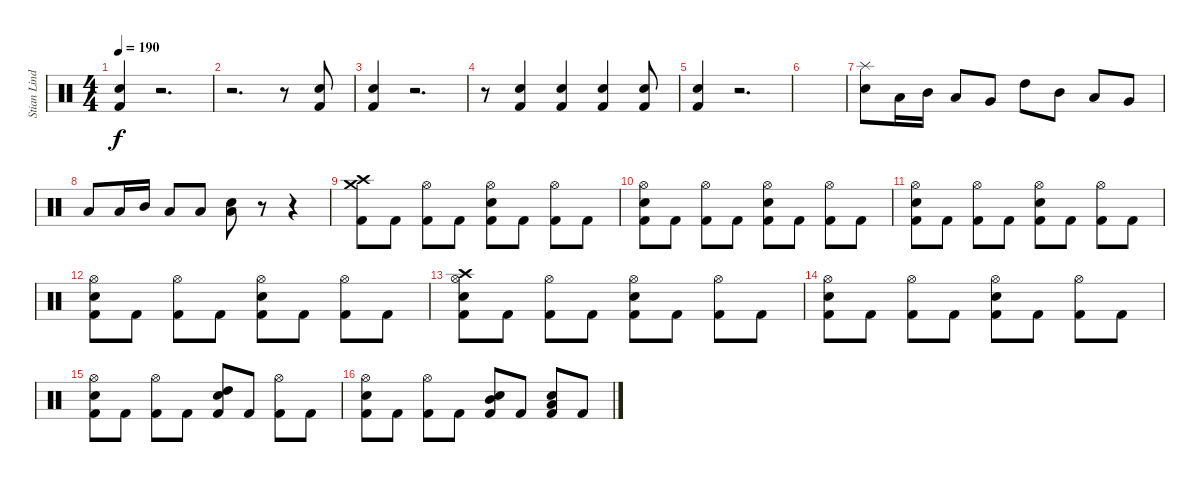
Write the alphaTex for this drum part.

\track ("Stian Lindaas" "Stian Lind") {instrument percussion}
\staff {score}
\articulation defaults
\ts (4 4)
\section ("" "")
\tempo 190
\clef neutral
\ks c
("Electric Snare (hit)" "Kick (hit) 2").4{dy f} r.2{d} |
r.2{d} r.8 ("Electric Snare (hit)" "Kick (hit) 2").8 |
("Electric Snare (hit)" "Kick (hit) 2").4 r.2{d} |
r.8 ("Electric Snare (hit)" "Kick (hit) 2").4 ("Electric Snare (hit)" "Kick (hit) 2").4 ("Electric Snare (hit)" "Kick (hit) 2").4 ("Electric Snare (hit)" "Kick (hit) 2").8 |
("Electric Snare (hit)" "Kick (hit) 2").4 r.2{d} |
|
("Splash (hit)" "Electric Snare (hit)").8 "Low Tom (hit)".16 "Mid Tom (hit)".16 "Low Tom (hit)".8 "Very Low Tom (hit)".8 "High Tom (hit)".8 "Mid Tom (hit)".8 "Low Tom (hit)".8 "Very Low Tom (hit)".8 |
"Low Tom (hit)".8 "Low Tom (hit)".16 "Mid Tom (hit)".16 "Low Tom (hit)".8 "Low Tom (hit)".8 ("Electric Snare (hit)" "Low Floor Tom (hit)").8 r.8 r.4 |
\section ("" "")
("Crash high (hit)" "Crash medium (hit)" "Kick (hit) 2").8 "Kick (hit) 2".8 ("Hi-Hat (open)" "Kick (hit) 2").8 "Kick (hit) 2".8 ("Hi-Hat (open)" "Electric Snare (hit)" "Kick (hit) 2").8 "Kick (hit) 2".8 ("Hi-Hat (open)" "Kick (hit) 2").8 "Kick (hit) 2".8 |
("Hi-Hat (open)" "Electric Snare (hit)" "Kick (hit) 2").8 "Kick (hit) 2".8 ("Hi-Hat (open)" "Kick (hit) 2").8 "Kick (hit) 2".8 ("Hi-Hat (open)" "Electric Snare (hit)" "Kick (hit) 2").8 "Kick (hit) 2".8 ("Hi-Hat (open)" "Kick (hit) 2").8 "Kick (hit) 2".8 |
("Hi-Hat (open)" "Electric Snare (hit)" "Kick (hit) 2").8 "Kick (hit) 2".8 ("Hi-Hat (open)" "Kick (hit) 2").8 "Kick (hit) 2".8 ("Hi-Hat (open)" "Electric Snare (hit)" "Kick (hit) 2").8 "Kick (hit) 2".8 ("Hi-Hat (open)" "Kick (hit) 2").8 "Kick (hit) 2".8 |
("Hi-Hat (open)" "Electric Snare (hit)" "Kick (hit) 2").8 "Kick (hit) 2".8 ("Hi-Hat (open)" "Kick (hit) 2").8 "Kick (hit) 2".8 ("Hi-Hat (open)" "Electric Snare (hit)" "Kick (hit) 2").8 "Kick (hit) 2".8 ("Hi-Hat (open)" "Kick (hit) 2").8 "Kick (hit) 2".8 |
("Crash high (hit)" "Hi-Hat (open)" "Electric Snare (hit)" "Kick (hit) 2").8 "Kick (hit) 2".8 ("Hi-Hat (open)" "Kick (hit) 2").8 "Kick (hit) 2".8 ("Hi-Hat (open)" "Electric Snare (hit)" "Kick (hit) 2").8 "Kick (hit) 2".8 ("Hi-Hat (open)" "Kick (hit) 2").8 "Kick (hit) 2".8 |
("Hi-Hat (open)" "Electric Snare (hit)" "Kick (hit) 2").8 "Kick (hit) 2".8 ("Hi-Hat (open)" "Kick (hit) 2").8 "Kick (hit) 2".8 ("Hi-Hat (open)" "Electric Snare (hit)" "Kick (hit) 2").8 "Kick (hit) 2".8 ("Hi-Hat (open)" "Kick (hit) 2").8 "Kick (hit) 2".8 |
("Hi-Hat (open)" "Electric Snare (hit)" "Kick (hit) 2").8 "Kick (hit) 2".8 ("Hi-Hat (open)" "Kick (hit) 2").8 "Kick (hit) 2".8 ("High Tom (hit)" "Electric Snare (hit)" "Kick (hit) 2").8 "Kick (hit) 2".8 ("Hi-Hat (open)" "Kick (hit) 2").8 "Kick (hit) 2".8 |
("Hi-Hat (open)" "Electric Snare (hit)" "Kick (hit) 2").8 "Kick (hit) 2".8 ("Hi-Hat (open)" "Kick (hit) 2").8 "Kick (hit) 2".8 ("Electric Snare (hit)" "Mid Tom (hit)" "Kick (hit) 2").8 "Kick (hit) 2".8 ("Electric Snare (hit)" "Low Tom (hit)" "Kick (hit) 2").8 "Kick (hit) 2".8
